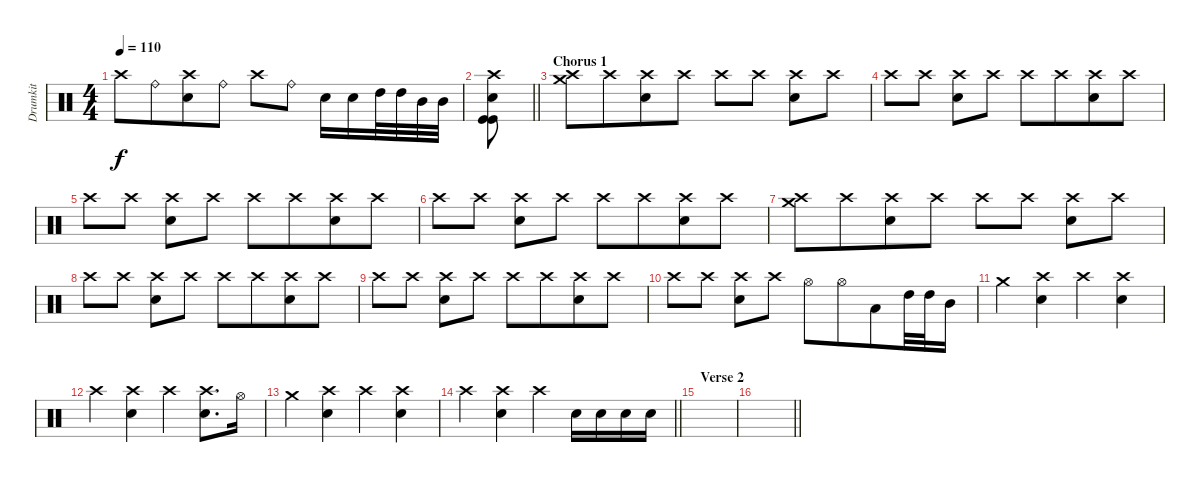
\track ("Drumkit" "Drumkit") {instrument percussion}
\staff {score}
\articulation defaults
\ts (4 4)
\tempo 110
\clef neutral
\ks c "Crash high (hit)".8{dy f} "Ride (bell)".8{beam merge}
("Crash high (hit)" "Electric Snare (hit)").8 "Ride (bell)".8 "Crash high (hit)".8{beam merge} "Ride (bell)".8 "Electric Snare (hit)".16 "Electric Snare (hit)".16{beam merge} "High Tom (hit)".32 "High Tom (hit)".32{beam merge} "Mid Tom (hit)".32 "Mid Tom (hit)".32 |
\barLineRight lightlight
("Crash high (hit)" "Electric Snare (hit)" "Kick (hit)" "Kick (hit)").8 |
\section ("" "Chorus 1")
("Crash medium (hit)" "Crash high (hit)").8 "Crash high (hit)".8{beam merge} ("Crash high (hit)" "Electric Snare (hit)").8 "Crash high (hit)".8 "Crash high (hit)".8 "Crash high (hit)".8 ("Crash high (hit)" "Electric Snare (hit)").8 "Crash high (hit)".8 |
"Crash high (hit)".8 "Crash high (hit)".8 ("Crash high (hit)" "Electric Snare (hit)").8{beam merge} "Crash high (hit)".8 "Crash high (hit)".8{beam merge} "Crash high (hit)".8{beam merge} ("Crash high (hit)" "Electric Snare (hit)").8 "Crash high (hit)".8 |
"Crash high (hit)".8 "Crash high (hit)".8 ("Crash high (hit)" "Electric Snare (hit)").8{beam merge} "Crash high (hit)".8 "Crash high (hit)".8{beam merge} "Crash high (hit)".8{beam merge} ("Crash high (hit)" "Electric Snare (hit)").8 "Crash high (hit)".8 |
"Crash high (hit)".8 "Crash high (hit)".8 ("Crash high (hit)" "Electric Snare (hit)").8{beam merge} "Crash high (hit)".8 "Crash high (hit)".8{beam merge} "Crash high (hit)".8{beam merge} ("Crash high (hit)" "Electric Snare (hit)").8 "Crash high (hit)".8 |
("Crash medium (hit)" "Crash high (hit)").8 "Crash high (hit)".8{beam merge} ("Crash high (hit)" "Electric Snare (hit)").8 "Crash high (hit)".8 "Crash high (hit)".8 "Crash high (hit)".8 ("Crash high (hit)" "Electric Snare (hit)").8 "Crash high (hit)".8 |
"Crash high (hit)".8 "Crash high (hit)".8 ("Crash high (hit)" "Electric Snare (hit)").8{beam merge} "Crash high (hit)".8 "Crash high (hit)".8{beam merge} "Crash high (hit)".8{beam merge} ("Crash high (hit)" "Electric Snare (hit)").8 "Crash high (hit)".8 |
"Crash high (hit)".8 "Crash high (hit)".8 ("Crash high (hit)" "Electric Snare (hit)").8{beam merge} "Crash high (hit)".8 "Crash high (hit)".8{beam merge} "Crash high (hit)".8{beam merge} ("Crash high (hit)" "Electric Snare (hit)").8 "Crash high (hit)".8 |
"Crash high (hit)".8 "Crash high (hit)".8 ("Crash high (hit)" "Electric Snare (hit)").8{beam merge} "Crash high (hit)".8 "Hi-Hat (open)".8{beam merge} "Hi-Hat (open)".8{beam merge} "Low Floor Tom (hit)".8{beam merge} "High Tom (hit)".32{beam merge} "High Tom (hit)".32 "Mid Tom (hit)".16 |
"Crash medium (hit)".4 ("Crash high (hit)" "Electric Snare (hit)").4{beam merge} "Crash high (hit)".4 ("Crash high (hit)" "Electric Snare (hit)").4 |
"Crash high (hit)".4 ("Crash high (hit)" "Electric Snare (hit)").4{beam merge} "Crash high (hit)".4 ("Crash high (hit)" "Electric Snare (hit)").8{d} "Hi-Hat (open)".16 |
"Crash medium (hit)".4 ("Crash high (hit)" "Electric Snare (hit)").4{beam merge} "Crash high (hit)".4 ("Crash high (hit)" "Electric Snare (hit)").4 |
\barLineRight lightlight "Crash high (hit)".4
("Crash high (hit)" "Electric Snare (hit)").4{beam merge} "Crash high (hit)".4 "Electric Snare (hit)".16 "Electric Snare (hit)".16{beam merge} "Electric Snare (hit)".16 "Electric Snare (hit)".16 |
\section ("" "Verse 2")
|
\barLineRight lightlight
